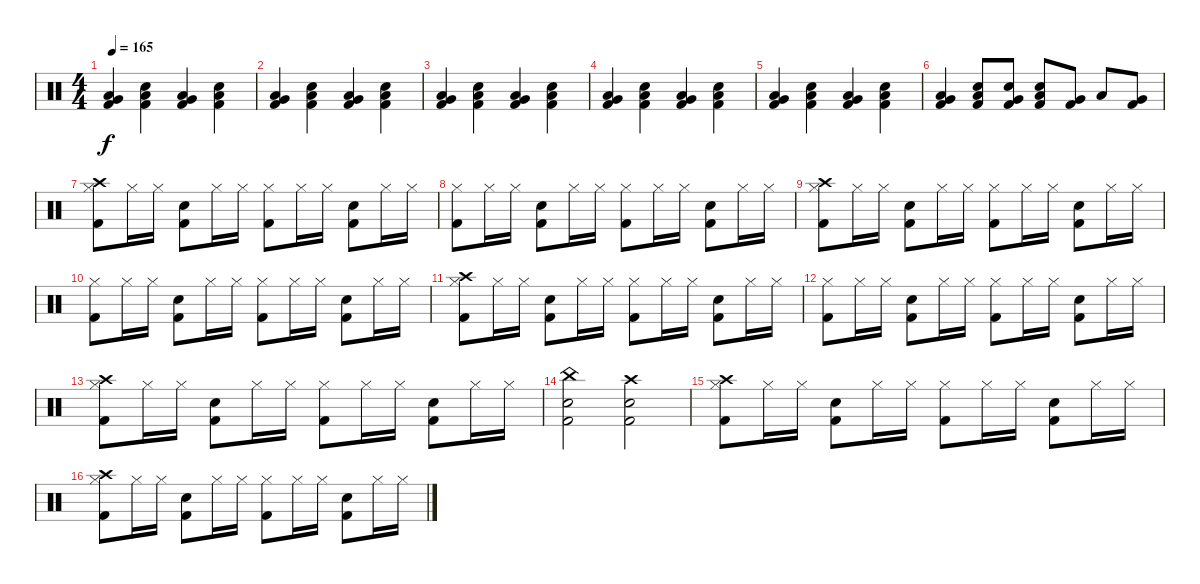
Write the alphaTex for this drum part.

\track "" {instrument percussion}
\staff {score}
\articulation defaults
\ts (4 4)
\tempo 165
\clef neutral
\ks c
("Low Tom (hit)" "Very Low Tom (hit)" "Kick (hit) 2").4{dy f} ("Low Tom (hit)" "Electric Snare (hit)" "Kick (hit) 2").4 ("Low Tom (hit)" "Very Low Tom (hit)" "Kick (hit) 2").4 ("Low Tom (hit)" "Electric Snare (hit)" "Kick (hit) 2").4 |
("Low Tom (hit)" "Very Low Tom (hit)" "Kick (hit) 2").4 ("Low Tom (hit)" "Electric Snare (hit)" "Kick (hit) 2").4 ("Low Tom (hit)" "Very Low Tom (hit)" "Kick (hit) 2").4 ("Low Tom (hit)" "Electric Snare (hit)" "Kick (hit) 2").4 |
("Low Tom (hit)" "Very Low Tom (hit)" "Kick (hit) 2").4 ("Low Tom (hit)" "Electric Snare (hit)" "Kick (hit) 2").4 ("Low Tom (hit)" "Very Low Tom (hit)" "Kick (hit) 2").4 ("Low Tom (hit)" "Electric Snare (hit)" "Kick (hit) 2").4 |
("Low Tom (hit)" "Very Low Tom (hit)" "Kick (hit) 2").4 ("Low Tom (hit)" "Electric Snare (hit)" "Kick (hit) 2").4 ("Low Tom (hit)" "Very Low Tom (hit)" "Kick (hit) 2").4 ("Low Tom (hit)" "Electric Snare (hit)" "Kick (hit) 2").4 |
("Low Tom (hit)" "Very Low Tom (hit)" "Kick (hit) 2").4 ("Low Tom (hit)" "Electric Snare (hit)" "Kick (hit) 2").4 ("Low Tom (hit)" "Very Low Tom (hit)" "Kick (hit) 2").4 ("Low Tom (hit)" "Electric Snare (hit)" "Kick (hit) 2").4 |
("Low Tom (hit)" "Very Low Tom (hit)" "Kick (hit) 2").4 ("Low Tom (hit)" "Electric Snare (hit)" "Kick (hit) 2").8 ("Very Low Tom (hit)" "Electric Snare (hit)" "Kick (hit) 2").8 ("Low Tom (hit)" "Electric Snare (hit)" "Kick (hit) 2").8 ("Very Low Tom (hit)" "Kick (hit) 2").8 "Low Tom (hit)".8 ("Very Low Tom (hit)" "Kick (hit) 2").8 |
("Crash high (hit)" "Hi-Hat (closed)" "Kick (hit) 2").8 "Hi-Hat (closed)".16 "Hi-Hat (closed)".16 ("Electric Snare (hit)" "Kick (hit) 2").8 "Hi-Hat (closed)".16 "Hi-Hat (closed)".16 ("Hi-Hat (closed)" "Kick (hit) 2").8 "Hi-Hat (closed)".16 "Hi-Hat (closed)".16 ("Electric Snare (hit)" "Kick (hit) 2").8 "Hi-Hat (closed)".16 "Hi-Hat (closed)".16 |
("Hi-Hat (closed)" "Kick (hit) 2").8 "Hi-Hat (closed)".16 "Hi-Hat (closed)".16 ("Electric Snare (hit)" "Kick (hit) 2").8 "Hi-Hat (closed)".16 "Hi-Hat (closed)".16 ("Hi-Hat (closed)" "Kick (hit) 2").8 "Hi-Hat (closed)".16 "Hi-Hat (closed)".16 ("Electric Snare (hit)" "Kick (hit) 2").8 "Hi-Hat (closed)".16 "Hi-Hat (closed)".16 |
("Crash high (hit)" "Hi-Hat (closed)" "Kick (hit) 2").8 "Hi-Hat (closed)".16 "Hi-Hat (closed)".16 ("Electric Snare (hit)" "Kick (hit) 2").8 "Hi-Hat (closed)".16 "Hi-Hat (closed)".16 ("Hi-Hat (closed)" "Kick (hit) 2").8 "Hi-Hat (closed)".16 "Hi-Hat (closed)".16 ("Electric Snare (hit)" "Kick (hit) 2").8 "Hi-Hat (closed)".16 "Hi-Hat (closed)".16 |
("Hi-Hat (closed)" "Kick (hit) 2").8 "Hi-Hat (closed)".16 "Hi-Hat (closed)".16 ("Electric Snare (hit)" "Kick (hit) 2").8 "Hi-Hat (closed)".16 "Hi-Hat (closed)".16 ("Hi-Hat (closed)" "Kick (hit) 2").8 "Hi-Hat (closed)".16 "Hi-Hat (closed)".16 ("Electric Snare (hit)" "Kick (hit) 2").8 "Hi-Hat (closed)".16 "Hi-Hat (closed)".16 |
("Crash high (hit)" "Hi-Hat (closed)" "Kick (hit) 2").8 "Hi-Hat (closed)".16 "Hi-Hat (closed)".16 ("Electric Snare (hit)" "Kick (hit) 2").8 "Hi-Hat (closed)".16 "Hi-Hat (closed)".16 ("Hi-Hat (closed)" "Kick (hit) 2").8 "Hi-Hat (closed)".16 "Hi-Hat (closed)".16 ("Electric Snare (hit)" "Kick (hit) 2").8 "Hi-Hat (closed)".16 "Hi-Hat (closed)".16 |
("Hi-Hat (closed)" "Kick (hit) 2").8 "Hi-Hat (closed)".16 "Hi-Hat (closed)".16 ("Electric Snare (hit)" "Kick (hit) 2").8 "Hi-Hat (closed)".16 "Hi-Hat (closed)".16 ("Hi-Hat (closed)" "Kick (hit) 2").8 "Hi-Hat (closed)".16 "Hi-Hat (closed)".16 ("Electric Snare (hit)" "Kick (hit) 2").8 "Hi-Hat (closed)".16 "Hi-Hat (closed)".16 |
("Crash high (hit)" "Hi-Hat (closed)" "Kick (hit) 2").8 "Hi-Hat (closed)".16 "Hi-Hat (closed)".16 ("Electric Snare (hit)" "Kick (hit) 2").8 "Hi-Hat (closed)".16 "Hi-Hat (closed)".16 ("Hi-Hat (closed)" "Kick (hit) 2").8 "Hi-Hat (closed)".16 "Hi-Hat (closed)".16 ("Electric Snare (hit)" "Kick (hit) 2").8 "Hi-Hat (closed)".16 "Hi-Hat (closed)".16 |
("China (hit)" "Electric Snare (hit)" "Kick (hit) 2").2 ("Crash high (hit)" "Electric Snare (hit)" "Kick (hit) 2").2 |
("Crash high (hit)" "Hi-Hat (closed)" "Kick (hit) 2").8 "Hi-Hat (closed)".16 "Hi-Hat (closed)".16 ("Electric Snare (hit)" "Kick (hit) 2").8 "Hi-Hat (closed)".16 "Hi-Hat (closed)".16 ("Hi-Hat (closed)" "Kick (hit) 2").8 "Hi-Hat (closed)".16 "Hi-Hat (closed)".16 ("Electric Snare (hit)" "Kick (hit) 2").8 "Hi-Hat (closed)".16 "Hi-Hat (closed)".16 |
("Crash high (hit)" "Hi-Hat (closed)" "Kick (hit) 2").8 "Hi-Hat (closed)".16 "Hi-Hat (closed)".16 ("Electric Snare (hit)" "Kick (hit) 2").8 "Hi-Hat (closed)".16 "Hi-Hat (closed)".16 ("Hi-Hat (closed)" "Kick (hit) 2").8 "Hi-Hat (closed)".16 "Hi-Hat (closed)".16 ("Electric Snare (hit)" "Kick (hit) 2").8 "Hi-Hat (closed)".16 "Hi-Hat (closed)".16
